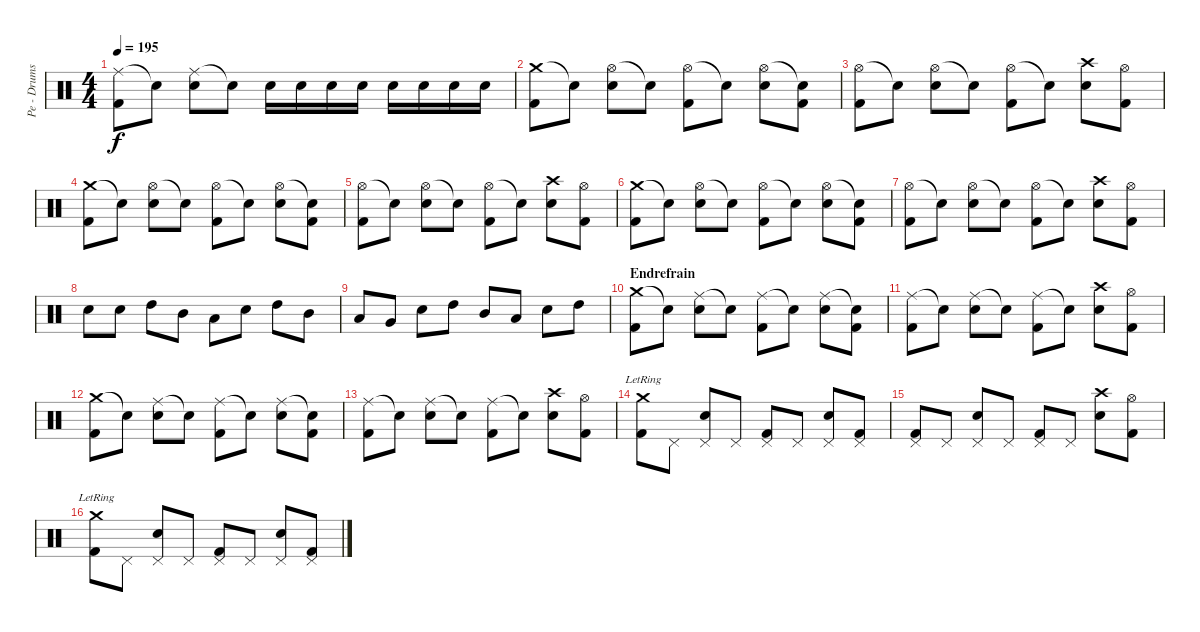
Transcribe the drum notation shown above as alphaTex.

\track ("Pe - Drums" "Pe - Drums") {instrument percussion}
\staff {score}
\articulation defaults
\ts (4 4)
\tempo 195
\clef neutral
\ks c
("Ride (middle)" "Kick (hit) 2").8{dy f} "Snare (hit)"{t}.8 ("Ride (middle)" "Electric Snare (hit)").8 "Snare (hit)"{t}.8 "Electric Snare (hit)".16 "Electric Snare (hit)".16 "Electric Snare (hit)".16 "Electric Snare (hit)".16 "Electric Snare (hit)".16 "Electric Snare (hit)".16 "Electric Snare (hit)".16 "Electric Snare (hit)".16 |
("Crash medium (hit)" "Kick (hit) 2").8 "Snare (hit)"{t}.8 ("Hi-Hat (open)" "Electric Snare (hit)").8 "Snare (hit)"{t}.8 ("Hi-Hat (open)" "Kick (hit) 2").8 "Snare (hit)"{t}.8 ("Hi-Hat (open)" "Electric Snare (hit)").8 ("Snare (hit)"{t} "Kick (hit) 2").8 |
("Hi-Hat (open)" "Kick (hit) 2").8 "Snare (hit)"{t}.8 ("Hi-Hat (open)" "Electric Snare (hit)").8 "Snare (hit)"{t}.8 ("Hi-Hat (open)" "Kick (hit) 2").8 "Snare (hit)"{t}.8 ("Crash high (hit)" "Electric Snare (hit)").8 ("Hi-Hat (open)" "Kick (hit) 2").8 |
("Crash medium (hit)" "Kick (hit) 2").8 "Snare (hit)"{t}.8 ("Hi-Hat (open)" "Electric Snare (hit)").8 "Snare (hit)"{t}.8 ("Hi-Hat (open)" "Kick (hit) 2").8 "Snare (hit)"{t}.8 ("Hi-Hat (open)" "Electric Snare (hit)").8 ("Snare (hit)"{t} "Kick (hit) 2").8 |
("Hi-Hat (open)" "Kick (hit) 2").8 "Snare (hit)"{t}.8 ("Hi-Hat (open)" "Electric Snare (hit)").8 "Snare (hit)"{t}.8 ("Hi-Hat (open)" "Kick (hit) 2").8 "Snare (hit)"{t}.8 ("Crash high (hit)" "Electric Snare (hit)").8 ("Hi-Hat (open)" "Kick (hit) 2").8 |
("Crash medium (hit)" "Kick (hit) 2").8 "Snare (hit)"{t}.8 ("Hi-Hat (open)" "Electric Snare (hit)").8 "Snare (hit)"{t}.8 ("Hi-Hat (open)" "Kick (hit) 2").8 "Snare (hit)"{t}.8 ("Hi-Hat (open)" "Electric Snare (hit)").8 ("Snare (hit)"{t} "Kick (hit) 2").8 |
("Hi-Hat (open)" "Kick (hit) 2").8 "Snare (hit)"{t}.8 ("Hi-Hat (open)" "Electric Snare (hit)").8 "Snare (hit)"{t}.8 ("Hi-Hat (open)" "Kick (hit) 2").8 "Snare (hit)"{t}.8 ("Crash high (hit)" "Electric Snare (hit)").8 ("Hi-Hat (open)" "Kick (hit) 2").8 |
"Electric Snare (hit)".8 "Electric Snare (hit)".8 "High Tom (hit)".8 "Mid Tom (hit)".8 "Low Tom (hit)".8 "Electric Snare (hit)".8 "High Tom (hit)".8 "Mid Tom (hit)".8 |
"Low Tom (hit)".8 "Very Low Tom (hit)".8 "Electric Snare (hit)".8 "High Tom (hit)".8 "Mid Tom (hit)".8 "Low Tom (hit)".8 "Electric Snare (hit)".8 "High Tom (hit)".8 |
\section ("" "Endrefrain")
("Crash medium (hit)" "Kick (hit) 2").8 "Snare (hit)"{t}.8 ("Ride (middle)" "Electric Snare (hit)").8 "Snare (hit)"{t}.8 ("Ride (middle)" "Kick (hit) 2").8 "Snare (hit)"{t}.8 ("Ride (middle)" "Electric Snare (hit)").8 ("Snare (hit)"{t} "Kick (hit) 2").8 |
("Ride (middle)" "Kick (hit) 2").8 "Snare (hit)"{t}.8 ("Ride (middle)" "Electric Snare (hit)").8 "Snare (hit)"{t}.8 ("Ride (middle)" "Kick (hit) 2").8 "Snare (hit)"{t}.8 ("Crash high (hit)" "Electric Snare (hit)").8 ("Hi-Hat (open)" "Kick (hit) 2").8 |
("Crash medium (hit)" "Kick (hit) 2").8 "Snare (hit)"{t}.8 ("Ride (middle)" "Electric Snare (hit)").8 "Snare (hit)"{t}.8 ("Ride (middle)" "Kick (hit) 2").8 "Snare (hit)"{t}.8 ("Ride (middle)" "Electric Snare (hit)").8 ("Snare (hit)"{t} "Kick (hit) 2").8 |
("Ride (middle)" "Kick (hit) 2").8 "Snare (hit)"{t}.8 ("Ride (middle)" "Electric Snare (hit)").8 "Snare (hit)"{t}.8 ("Ride (middle)" "Kick (hit) 2").8 "Snare (hit)"{t}.8 ("Crash high (hit)" "Electric Snare (hit)").8 ("Hi-Hat (open)" "Kick (hit) 2").8 |
("Crash medium (hit)"{lr} "Kick (hit) 2").8 "Pedal Hi-Hat (hit)".8 ("Pedal Hi-Hat (hit)" "Electric Snare (hit)").8 "Pedal Hi-Hat (hit)".8 ("Pedal Hi-Hat (hit)" "Kick (hit) 2").8 "Pedal Hi-Hat (hit)".8 ("Pedal Hi-Hat (hit)" "Electric Snare (hit)").8 ("Pedal Hi-Hat (hit)" "Kick (hit) 2").8 |
("Pedal Hi-Hat (hit)" "Kick (hit) 2").8 "Pedal Hi-Hat (hit)".8 ("Pedal Hi-Hat (hit)" "Electric Snare (hit)").8 "Pedal Hi-Hat (hit)".8 ("Pedal Hi-Hat (hit)" "Kick (hit) 2").8 "Pedal Hi-Hat (hit)".8 ("Crash high (hit)" "Electric Snare (hit)").8 ("Hi-Hat (open)" "Kick (hit) 2").8 |
("Crash medium (hit)"{lr} "Kick (hit) 2").8 "Pedal Hi-Hat (hit)".8 ("Pedal Hi-Hat (hit)" "Electric Snare (hit)").8 "Pedal Hi-Hat (hit)".8 ("Pedal Hi-Hat (hit)" "Kick (hit) 2").8 "Pedal Hi-Hat (hit)".8 ("Pedal Hi-Hat (hit)" "Electric Snare (hit)").8 ("Pedal Hi-Hat (hit)" "Kick (hit) 2").8
